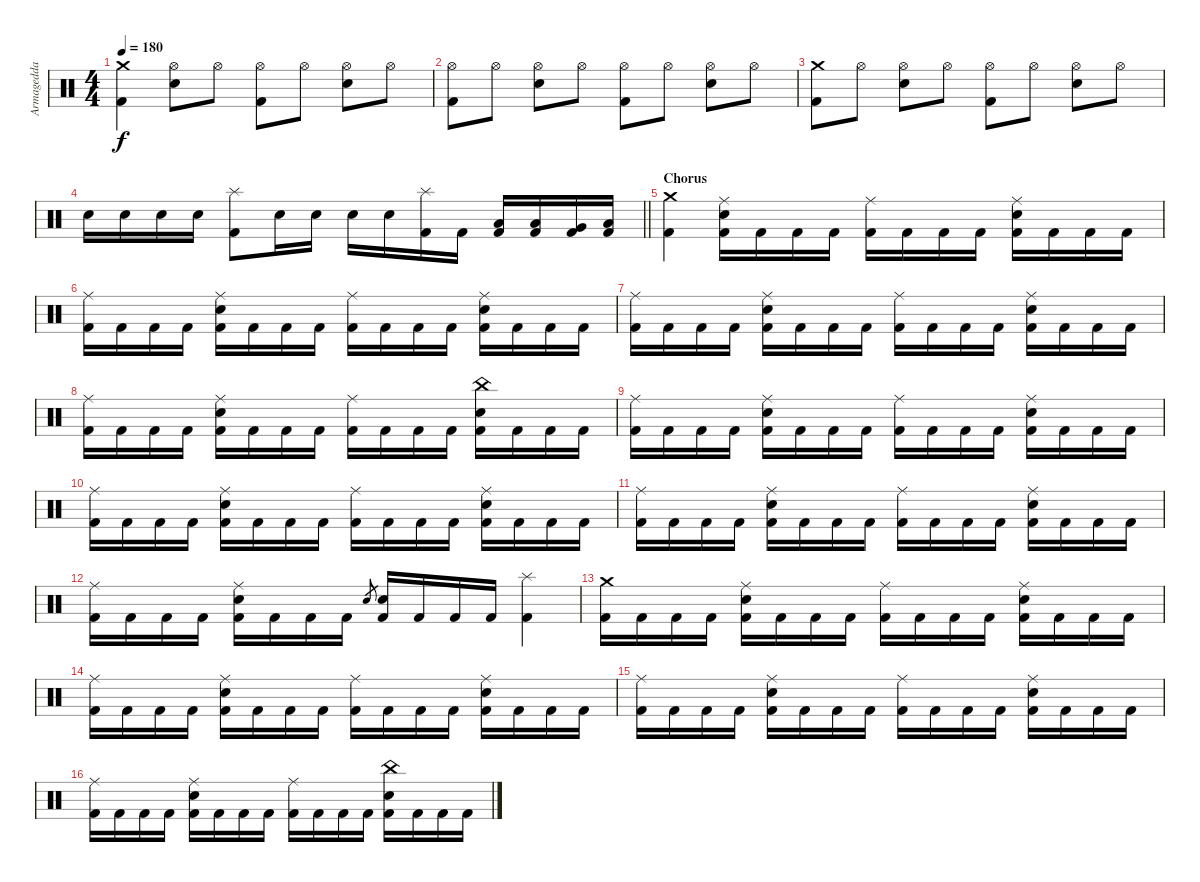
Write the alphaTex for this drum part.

\track ("Armagedda" "Armagedda") {instrument percussion}
\staff {score}
\articulation defaults
\ts (4 4)
\tempo 180
\clef neutral
\ks c
("Crash medium (hit)" "Kick (hit) 2").4{dy f} ("Hi-Hat (open)" "Electric Snare (hit)").8 "Hi-Hat (open)".8 ("Hi-Hat (open)" "Kick (hit) 2").8 "Hi-Hat (open)".8 ("Hi-Hat (open)" "Electric Snare (hit)").8 "Hi-Hat (open)".8 |
("Hi-Hat (open)" "Kick (hit) 2").8 "Hi-Hat (open)".8 ("Hi-Hat (open)" "Electric Snare (hit)").8 "Hi-Hat (open)".8 ("Hi-Hat (open)" "Kick (hit) 2").8 "Hi-Hat (open)".8 ("Hi-Hat (open)" "Electric Snare (hit)").8 "Hi-Hat (open)".8 |
("Crash medium (hit)" "Kick (hit) 2").8 "Hi-Hat (open)".8 ("Hi-Hat (open)" "Electric Snare (hit)").8 "Hi-Hat (open)".8 ("Hi-Hat (open)" "Kick (hit) 2").8 "Hi-Hat (open)".8 ("Hi-Hat (open)" "Electric Snare (hit)").8 "Hi-Hat (open)".8 |
\barLineRight lightlight "Electric Snare (hit)".16 "Electric Snare (hit)".16 "Electric Snare (hit)".16 "Electric Snare (hit)".16
("Splash (hit)" "Kick (hit) 2").8 "Electric Snare (hit)".16 "Electric Snare (hit)".16 "Electric Snare (hit)".16 "Electric Snare (hit)".16 ("Splash (hit)" "Kick (hit) 2").16 "Kick (hit) 2".16 ("Low Tom (hit)" "Kick (hit) 2").16 ("Low Tom (hit)" "Kick (hit) 2").16 ("Very Low Tom (hit)" "Kick (hit) 2").16 ("Low Floor Tom (hit)" "Kick (hit) 2").16 |
\section ("" "Chorus")
("Crash medium (hit)" "Kick (hit) 2").4 ("Ride (middle)" "Electric Snare (hit)" "Kick (hit) 2").16 "Kick (hit) 2".16 "Kick (hit) 2".16 "Kick (hit) 2".16 ("Ride (middle)" "Kick (hit) 2").16 "Kick (hit) 2".16 "Kick (hit) 2".16 "Kick (hit) 2".16 ("Ride (middle)" "Electric Snare (hit)" "Kick (hit) 2").16 "Kick (hit) 2".16 "Kick (hit) 2".16 "Kick (hit) 2".16 |
("Ride (middle)" "Kick (hit) 2").16 "Kick (hit) 2".16 "Kick (hit) 2".16 "Kick (hit) 2".16 ("Ride (middle)" "Electric Snare (hit)" "Kick (hit) 2").16 "Kick (hit) 2".16 "Kick (hit) 2".16 "Kick (hit) 2".16 ("Ride (middle)" "Kick (hit) 2").16 "Kick (hit) 2".16 "Kick (hit) 2".16 "Kick (hit) 2".16 ("Ride (middle)" "Electric Snare (hit)" "Kick (hit) 2").16 "Kick (hit) 2".16 "Kick (hit) 2".16 "Kick (hit) 2".16 |
("Ride (middle)" "Kick (hit) 2").16 "Kick (hit) 2".16 "Kick (hit) 2".16 "Kick (hit) 2".16 ("Ride (middle)" "Electric Snare (hit)" "Kick (hit) 2").16 "Kick (hit) 2".16 "Kick (hit) 2".16 "Kick (hit) 2".16 ("Ride (middle)" "Kick (hit) 2").16 "Kick (hit) 2".16 "Kick (hit) 2".16 "Kick (hit) 2".16 ("Ride (middle)" "Electric Snare (hit)" "Kick (hit) 2").16 "Kick (hit) 2".16 "Kick (hit) 2".16 "Kick (hit) 2".16 |
("Ride (middle)" "Kick (hit) 2").16 "Kick (hit) 2".16 "Kick (hit) 2".16 "Kick (hit) 2".16 ("Ride (middle)" "Electric Snare (hit)" "Kick (hit) 2").16 "Kick (hit) 2".16 "Kick (hit) 2".16 "Kick (hit) 2".16 ("Ride (middle)" "Kick (hit) 2").16 "Kick (hit) 2".16 "Kick (hit) 2".16 "Kick (hit) 2".16 ("China (hit)" "Electric Snare (hit)" "Kick (hit) 2").16 "Kick (hit) 2".16 "Kick (hit) 2".16 "Kick (hit) 2".16 |
("Ride (middle)" "Kick (hit) 2").16 "Kick (hit) 2".16 "Kick (hit) 2".16 "Kick (hit) 2".16 ("Ride (middle)" "Electric Snare (hit)" "Kick (hit) 2").16 "Kick (hit) 2".16 "Kick (hit) 2".16 "Kick (hit) 2".16 ("Ride (middle)" "Kick (hit) 2").16 "Kick (hit) 2".16 "Kick (hit) 2".16 "Kick (hit) 2".16 ("Ride (middle)" "Electric Snare (hit)" "Kick (hit) 2").16 "Kick (hit) 2".16 "Kick (hit) 2".16 "Kick (hit) 2".16 |
("Ride (middle)" "Kick (hit) 2").16 "Kick (hit) 2".16 "Kick (hit) 2".16 "Kick (hit) 2".16 ("Ride (middle)" "Electric Snare (hit)" "Kick (hit) 2").16 "Kick (hit) 2".16 "Kick (hit) 2".16 "Kick (hit) 2".16 ("Ride (middle)" "Kick (hit) 2").16 "Kick (hit) 2".16 "Kick (hit) 2".16 "Kick (hit) 2".16 ("Ride (middle)" "Electric Snare (hit)" "Kick (hit) 2").16 "Kick (hit) 2".16 "Kick (hit) 2".16 "Kick (hit) 2".16 |
("Ride (middle)" "Kick (hit) 2").16 "Kick (hit) 2".16 "Kick (hit) 2".16 "Kick (hit) 2".16 ("Ride (middle)" "Electric Snare (hit)" "Kick (hit) 2").16 "Kick (hit) 2".16 "Kick (hit) 2".16 "Kick (hit) 2".16 ("Ride (middle)" "Kick (hit) 2").16 "Kick (hit) 2".16 "Kick (hit) 2".16 "Kick (hit) 2".16 ("Ride (middle)" "Electric Snare (hit)" "Kick (hit) 2").16 "Kick (hit) 2".16 "Kick (hit) 2".16 "Kick (hit) 2".16 |
("Ride (middle)" "Kick (hit) 2").16 "Kick (hit) 2".16 "Kick (hit) 2".16 "Kick (hit) 2".16 ("Ride (middle)" "Electric Snare (hit)" "Kick (hit) 2").16 "Kick (hit) 2".16 "Kick (hit) 2".16 "Kick (hit) 2".16 "Electric Snare (hit)".8{gr} ("Electric Snare (hit)" "Kick (hit) 2").16 "Kick (hit) 2".16 "Kick (hit) 2".16 "Kick (hit) 2".16 ("Splash (hit)" "Kick (hit) 2").4 |
("Crash medium (hit)" "Kick (hit) 2").16 "Kick (hit) 2".16 "Kick (hit) 2".16 "Kick (hit) 2".16 ("Ride (middle)" "Electric Snare (hit)" "Kick (hit) 2").16 "Kick (hit) 2".16 "Kick (hit) 2".16 "Kick (hit) 2".16 ("Ride (middle)" "Kick (hit) 2").16 "Kick (hit) 2".16 "Kick (hit) 2".16 "Kick (hit) 2".16 ("Ride (middle)" "Electric Snare (hit)" "Kick (hit) 2").16 "Kick (hit) 2".16 "Kick (hit) 2".16 "Kick (hit) 2".16 |
("Ride (middle)" "Kick (hit) 2").16 "Kick (hit) 2".16 "Kick (hit) 2".16 "Kick (hit) 2".16 ("Ride (middle)" "Electric Snare (hit)" "Kick (hit) 2").16 "Kick (hit) 2".16 "Kick (hit) 2".16 "Kick (hit) 2".16 ("Ride (middle)" "Kick (hit) 2").16 "Kick (hit) 2".16 "Kick (hit) 2".16 "Kick (hit) 2".16 ("Ride (middle)" "Electric Snare (hit)" "Kick (hit) 2").16 "Kick (hit) 2".16 "Kick (hit) 2".16 "Kick (hit) 2".16 |
("Ride (middle)" "Kick (hit) 2").16 "Kick (hit) 2".16 "Kick (hit) 2".16 "Kick (hit) 2".16 ("Ride (middle)" "Electric Snare (hit)" "Kick (hit) 2").16 "Kick (hit) 2".16 "Kick (hit) 2".16 "Kick (hit) 2".16 ("Ride (middle)" "Kick (hit) 2").16 "Kick (hit) 2".16 "Kick (hit) 2".16 "Kick (hit) 2".16 ("Ride (middle)" "Electric Snare (hit)" "Kick (hit) 2").16 "Kick (hit) 2".16 "Kick (hit) 2".16 "Kick (hit) 2".16 |
("Ride (middle)" "Kick (hit) 2").16 "Kick (hit) 2".16 "Kick (hit) 2".16 "Kick (hit) 2".16 ("Ride (middle)" "Electric Snare (hit)" "Kick (hit) 2").16 "Kick (hit) 2".16 "Kick (hit) 2".16 "Kick (hit) 2".16 ("Ride (middle)" "Kick (hit) 2").16 "Kick (hit) 2".16 "Kick (hit) 2".16 "Kick (hit) 2".16 ("China (hit)" "Electric Snare (hit)" "Kick (hit) 2").16 "Kick (hit) 2".16 "Kick (hit) 2".16 "Kick (hit) 2".16
